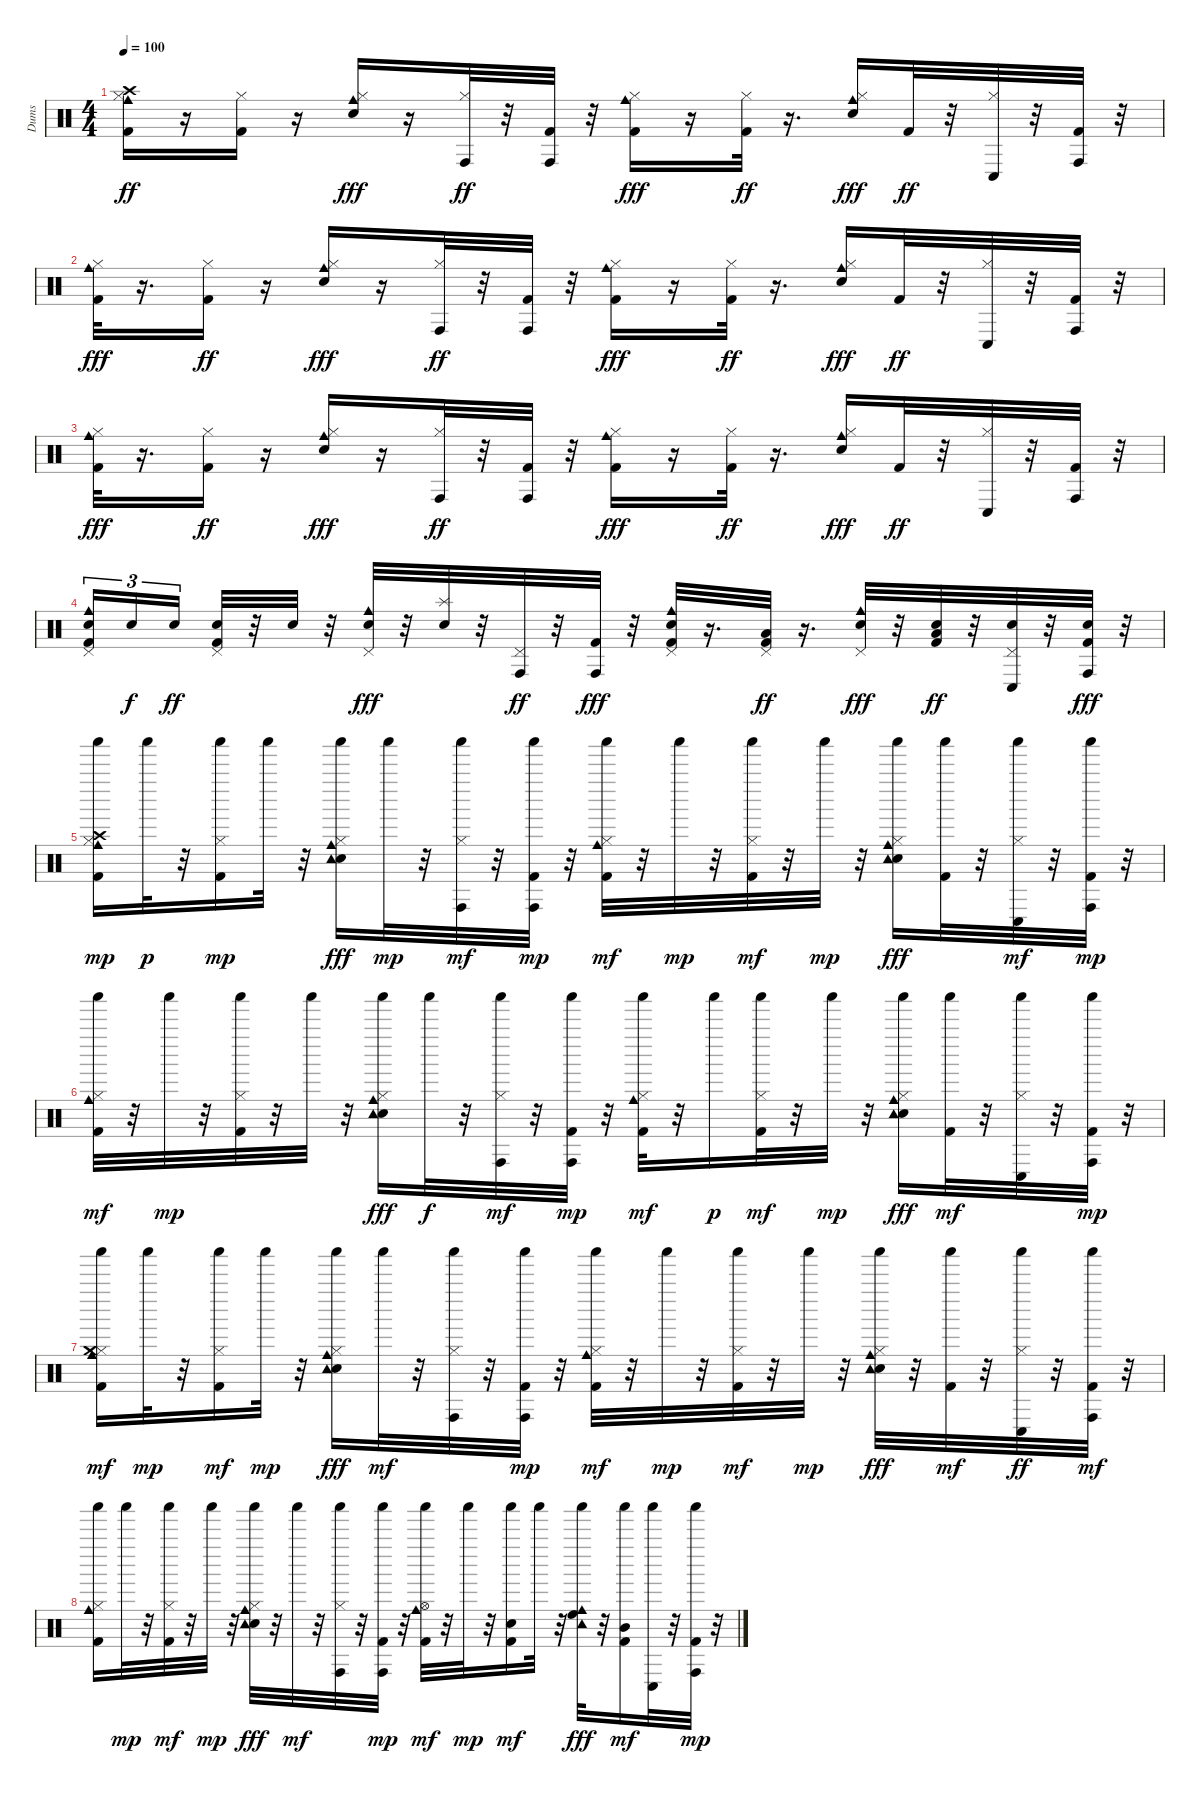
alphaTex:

\track ("Dums" "Dums") {instrument percussion}
\staff {score}
\articulation defaults
\ts (4 4)
\tempo 100
\clef neutral
\ks c
("Kick (hit) 2" "Hi-Hat (closed)" "Cowbell medium (hit)" "Crash high (hit)").16{dy ff} r.16 ("Kick (hit) 2" "Hi-Hat (closed)").16 r.16 ("Hi-Hat (closed)" "Hand Clap (hit)" "Cowbell medium (hit)").16{dy fff} r.16 ("Hi-Hat (closed)" "Conga high (hit)").32{dy ff} r.32 ("Kick (hit) 2" "Conga high (hit)").32 r.32 ("Kick (hit) 2" "Hi-Hat (closed)" "Cowbell medium (hit)").16{dy fff} r.16 ("Kick (hit) 2" "Hi-Hat (closed)").32{dy ff} r.16{d} ("Hi-Hat (closed)" "Hand Clap (hit)" "Cowbell medium (hit)").16{dy fff} "Kick (hit) 2".32{dy ff} r.32 ("Hi-Hat (closed)" "Conga low (hit)").32 r.32 ("Kick (hit) 2" "Conga high (hit)").32 r.32 |
("Kick (hit) 2" "Hi-Hat (closed)" "Cowbell medium (hit)").32{dy fff} r.16{d} ("Kick (hit) 2" "Hi-Hat (closed)").16{dy ff} r.16 ("Hi-Hat (closed)" "Hand Clap (hit)" "Cowbell medium (hit)").16{dy fff} r.16 ("Hi-Hat (closed)" "Conga high (hit)").32{dy ff} r.32 ("Kick (hit) 2" "Conga high (hit)").32 r.32 ("Kick (hit) 2" "Hi-Hat (closed)" "Cowbell medium (hit)").16{dy fff} r.16 ("Kick (hit) 2" "Hi-Hat (closed)").32{dy ff} r.16{d} ("Hi-Hat (closed)" "Hand Clap (hit)" "Cowbell medium (hit)").16{dy fff} "Kick (hit) 2".32{dy ff} r.32 ("Hi-Hat (closed)" "Conga low (hit)").32 r.32 ("Kick (hit) 2" "Conga high (hit)").32 r.32 |
("Kick (hit) 2" "Hi-Hat (closed)" "Cowbell medium (hit)").32{dy fff} r.16{d} ("Kick (hit) 2" "Hi-Hat (closed)").16{dy ff} r.16 ("Hi-Hat (closed)" "Hand Clap (hit)" "Cowbell medium (hit)").16{dy fff} r.16 ("Hi-Hat (closed)" "Conga high (hit)").32{dy ff} r.32 ("Kick (hit) 2" "Conga high (hit)").32 r.32 ("Kick (hit) 2" "Hi-Hat (closed)" "Cowbell medium (hit)").16{dy fff} r.16 ("Kick (hit) 2" "Hi-Hat (closed)").32{dy ff} r.16{d} ("Hi-Hat (closed)" "Hand Clap (hit)" "Cowbell medium (hit)").16{dy fff} "Kick (hit) 2".32{dy ff} r.32 ("Hi-Hat (closed)" "Conga low (hit)").32 r.32 ("Kick (hit) 2" "Conga high (hit)").32 r.32 |
("Kick (hit) 2" "Electric Snare (hit)" "Pedal Hi-Hat (hit)" "Cowbell medium (hit)").16{tu (3 2)} "Electric Snare (hit)".16{tu (3 2) dy f} "Electric Snare (hit)".16{tu (3 2) dy ff beam splitsecondary} ("Kick (hit) 2" "Electric Snare (hit)" "Pedal Hi-Hat (hit)").32 r.32 "Electric Snare (hit)".32 r.32 ("Electric Snare (hit)" "Pedal Hi-Hat (hit)" "Cowbell medium (hit)").32{dy fff} r.32 ("Electric Snare (hit)" "Splash (hit)").32 r.32 ("Pedal Hi-Hat (hit)" "Conga high (hit)").32{dy ff} r.32 ("Kick (hit) 2" "Conga high (hit)").32{dy fff} r.32 ("Kick (hit) 2" "Electric Snare (hit)" "Pedal Hi-Hat (hit)" "Cowbell medium (hit)").32 r.16{d} ("Kick (hit) 2" "Low Floor Tom (hit)" "Pedal Hi-Hat (hit)").32{dy ff} r.16{d} ("Electric Snare (hit)" "Pedal Hi-Hat (hit)" "Cowbell medium (hit)").32{dy fff} r.32 ("Kick (hit) 2" "Electric Snare (hit)" "Low Floor Tom (hit)").32{dy ff} r.32 ("Electric Snare (hit)" "Pedal Hi-Hat (hit)" "Conga low (hit)").32 r.32 ("Kick (hit) 2" "Electric Snare (hit)" "Conga high (hit)").32{dy fff} r.32 |
("Kick (hit) 2" "Hi-Hat (closed)" "Cowbell medium (hit)" "Crash high (hit)" "Shaker (hit)").16{dy mp} "Shaker (hit)".32{dy p} r.32 ("Kick (hit) 2" "Hi-Hat (closed)" "Shaker (hit)").16{dy mp} "Shaker (hit)".32 r.32 ("Electric Snare (hit)" "Hi-Hat (closed)" "Cowbell medium (hit)" "Shaker (hit)" "Tambourine (hit)").16{dy fff} "Shaker (hit)".32{dy mp} r.32 ("Hi-Hat (closed)" "Conga high (hit)" "Shaker (hit)").32{dy mf} r.32 ("Kick (hit) 2" "Conga high (hit)" "Shaker (hit)").32{dy mp} r.32 ("Kick (hit) 2" "Hi-Hat (closed)" "Cowbell medium (hit)" "Shaker (hit)").32{dy mf} r.32 "Shaker (hit)".32{dy mp} r.32 ("Kick (hit) 2" "Hi-Hat (closed)" "Shaker (hit)").32{dy mf} r.32 "Shaker (hit)".32{dy mp} r.32 ("Electric Snare (hit)" "Hi-Hat (closed)" "Cowbell medium (hit)" "Shaker (hit)" "Tambourine (hit)").16{dy fff} ("Kick (hit) 2" "Shaker (hit)").32 r.32 ("Hi-Hat (closed)" "Conga low (hit)" "Shaker (hit)").32{dy mf} r.32 ("Kick (hit) 2" "Conga high (hit)" "Shaker (hit)").32{dy mp} r.32 |
("Kick (hit) 2" "Hi-Hat (closed)" "Cowbell medium (hit)" "Shaker (hit)").32{dy mf} r.32 "Shaker (hit)".32{dy mp} r.32 ("Kick (hit) 2" "Hi-Hat (closed)" "Shaker (hit)").32 r.32 "Shaker (hit)".32 r.32 ("Electric Snare (hit)" "Hi-Hat (closed)" "Cowbell medium (hit)" "Shaker (hit)" "Tambourine (hit)").16{dy fff} "Shaker (hit)".32{dy f} r.32 ("Hi-Hat (closed)" "Conga high (hit)" "Shaker (hit)").32{dy mf} r.32 ("Kick (hit) 2" "Conga high (hit)" "Shaker (hit)").32{dy mp} r.32 ("Kick (hit) 2" "Hi-Hat (closed)" "Cowbell medium (hit)" "Shaker (hit)").32{dy mf} r.32 "Shaker (hit)".16{dy p} ("Kick (hit) 2" "Hi-Hat (closed)" "Shaker (hit)").32{dy mf} r.32 "Shaker (hit)".32{dy mp} r.32 ("Electric Snare (hit)" "Hi-Hat (closed)" "Cowbell medium (hit)" "Shaker (hit)" "Tambourine (hit)").16{dy fff} ("Kick (hit) 2" "Shaker (hit)").32{dy mf} r.32 ("Hi-Hat (closed)" "Conga low (hit)" "Shaker (hit)").32 r.32 ("Kick (hit) 2" "Conga high (hit)" "Shaker (hit)").32{dy mp} r.32 |
("Kick (hit) 2" "Hi-Hat (closed)" "Cowbell medium (hit)" "Crash medium (hit)" "Shaker (hit)").16{dy mf} "Shaker (hit)".32{dy mp} r.32 ("Kick (hit) 2" "Hi-Hat (closed)" "Shaker (hit)").16{dy mf} "Shaker (hit)".32{dy mp} r.32 ("Electric Snare (hit)" "Hi-Hat (closed)" "Cowbell medium (hit)" "Shaker (hit)" "Tambourine (hit)").16{dy fff} "Shaker (hit)".32{dy mf} r.32 ("Hi-Hat (closed)" "Conga high (hit)" "Shaker (hit)").32 r.32 ("Kick (hit) 2" "Conga high (hit)" "Shaker (hit)").32{dy mp} r.32 ("Kick (hit) 2" "Hi-Hat (closed)" "Cowbell medium (hit)" "Shaker (hit)").32{dy mf} r.32 "Shaker (hit)".32{dy mp} r.32 ("Kick (hit) 2" "Hi-Hat (closed)" "Shaker (hit)").32{dy mf} r.32 "Shaker (hit)".32{dy mp} r.32 ("Electric Snare (hit)" "Hi-Hat (closed)" "Cowbell medium (hit)" "Shaker (hit)" "Tambourine (hit)").32{dy fff} r.32 ("Kick (hit) 2" "Shaker (hit)").32{dy mf} r.32 ("Hi-Hat (closed)" "Conga low (hit)" "Shaker (hit)").32{dy ff} r.32 ("Kick (hit) 2" "Conga high (hit)" "Shaker (hit)").32{dy mf} r.32 |
("Kick (hit) 2" "Hi-Hat (closed)" "Cowbell medium (hit)" "Shaker (hit)").16 "Shaker (hit)".32{dy mp} r.32 ("Kick (hit) 2" "Hi-Hat (closed)" "Shaker (hit)").32{dy mf} r.32 "Shaker (hit)".32{dy mp} r.32 ("Electric Snare (hit)" "Hi-Hat (closed)" "Cowbell medium (hit)" "Shaker (hit)" "Tambourine (hit)").32{dy fff} r.32 "Shaker (hit)".32{dy mf} r.32 ("Hi-Hat (closed)" "Conga high (hit)" "Shaker (hit)").32 r.32 ("Kick (hit) 2" "Conga high (hit)" "Shaker (hit)").32{dy mp} r.32 ("Kick (hit) 2" "Hi-Hat (open)" "Cowbell medium (hit)" "Shaker (hit)").32{dy mf} r.32 "Shaker (hit)".32{dy mp} r.32 ("Kick (hit) 2" "Electric Snare (hit)" "Shaker (hit)").16{dy mf} "Shaker (hit)".32 r.32 ("High Floor Tom (hit)" "Cowbell medium (hit)" "Shaker (hit)" "Tambourine (hit)").32{dy fff} r.32 ("Kick (hit) 2" "Mid Tom (hit)" "Shaker (hit)").16{dy mf} ("Conga low (hit)" "Shaker (hit)").32 r.32 ("Kick (hit) 2" "Conga high (hit)" "Shaker (hit)").32{dy mp} r.32
